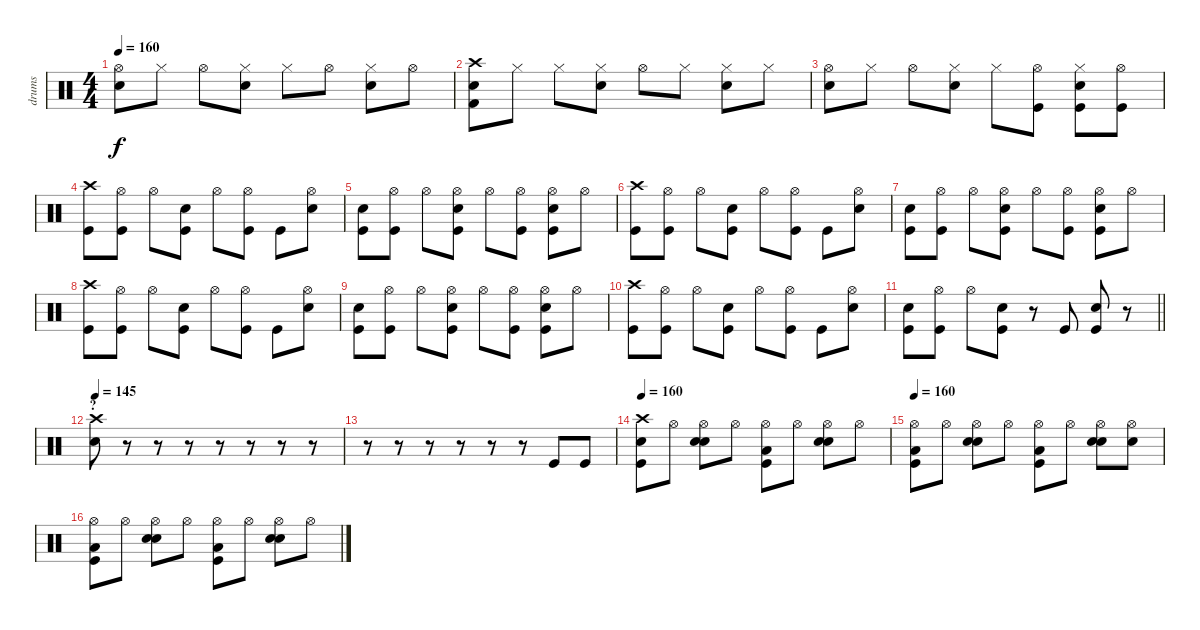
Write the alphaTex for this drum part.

\track ("drums" "drums") {instrument percussion}
\staff {score}
\articulation defaults
\ts (4 4)
\tempo 160
\clef neutral
\ks c
("Hi-Hat (open)" "Snare (hit) 2").8{dy f} "Hi-Hat (closed)".8 "Hi-Hat (open)".8 ("Hi-Hat (closed)" "Snare (hit) 2").8 "Hi-Hat (closed)".8 "Hi-Hat (open)".8 ("Hi-Hat (closed)" "Snare (hit) 2").8 "Hi-Hat (open)".8 |
("Crash high (hit)" "Snare (hit) 2" "Kick (hit) 2").8 "Hi-Hat (closed)".8 "Hi-Hat (closed)".8 ("Hi-Hat (closed)" "Snare (hit) 2").8 "Hi-Hat (open)".8 "Hi-Hat (closed)".8 ("Hi-Hat (closed)" "Snare (hit) 2").8 "Hi-Hat (closed)".8 |
("Hi-Hat (open)" "Snare (hit) 2").8 "Hi-Hat (closed)".8 "Hi-Hat (open)".8 ("Hi-Hat (closed)" "Snare (hit) 2").8 "Hi-Hat (closed)".8 ("Hi-Hat (open)" "Kick (hit)").8 ("Hi-Hat (closed)" "Snare (hit) 2" "Kick (hit)").8 ("Hi-Hat (open)" "Kick (hit)").8 |
("Crash high (hit)" "Kick (hit)").8 ("Hi-Hat (open)" "Kick (hit)").8 "Hi-Hat (open)".8 ("Snare (hit) 2" "Kick (hit)").8 "Hi-Hat (open)".8 ("Hi-Hat (open)" "Kick (hit)").8 "Kick (hit)".8 ("Hi-Hat (open)" "Snare (hit) 2").8 |
("Snare (hit) 2" "Kick (hit)").8 ("Hi-Hat (open)" "Kick (hit)").8 "Hi-Hat (open)".8 ("Hi-Hat (open)" "Snare (hit) 2" "Kick (hit)").8 "Hi-Hat (open)".8 ("Hi-Hat (open)" "Kick (hit)").8 ("Hi-Hat (open)" "Snare (hit) 2" "Kick (hit)").8 "Hi-Hat (open)".8 |
("Crash high (hit)" "Kick (hit)").8 ("Hi-Hat (open)" "Kick (hit)").8 "Hi-Hat (open)".8 ("Snare (hit) 2" "Kick (hit)").8 "Hi-Hat (open)".8 ("Hi-Hat (open)" "Kick (hit)").8 "Kick (hit)".8 ("Hi-Hat (open)" "Snare (hit) 2").8 |
("Snare (hit) 2" "Kick (hit)").8 ("Hi-Hat (open)" "Kick (hit)").8 "Hi-Hat (open)".8 ("Hi-Hat (open)" "Snare (hit) 2" "Kick (hit)").8 "Hi-Hat (open)".8 ("Hi-Hat (open)" "Kick (hit)").8 ("Hi-Hat (open)" "Snare (hit) 2" "Kick (hit)").8 "Hi-Hat (open)".8 |
("Crash high (hit)" "Kick (hit)").8 ("Hi-Hat (open)" "Kick (hit)").8 "Hi-Hat (open)".8 ("Snare (hit) 2" "Kick (hit)").8 "Hi-Hat (open)".8 ("Hi-Hat (open)" "Kick (hit)").8 "Kick (hit)".8 ("Hi-Hat (open)" "Snare (hit) 2").8 |
("Snare (hit) 2" "Kick (hit)").8 ("Hi-Hat (open)" "Kick (hit)").8 "Hi-Hat (open)".8 ("Hi-Hat (open)" "Snare (hit) 2" "Kick (hit)").8 "Hi-Hat (open)".8 ("Hi-Hat (open)" "Kick (hit)").8 ("Hi-Hat (open)" "Snare (hit) 2" "Kick (hit)").8 "Hi-Hat (open)".8 |
("Crash high (hit)" "Kick (hit)").8 ("Hi-Hat (open)" "Kick (hit)").8 "Hi-Hat (open)".8 ("Snare (hit) 2" "Kick (hit)").8 "Hi-Hat (open)".8 ("Hi-Hat (open)" "Kick (hit)").8 "Kick (hit)".8 ("Hi-Hat (open)" "Snare (hit) 2").8 |
\barLineRight lightlight
("Snare (hit) 2" "Kick (hit)").8 ("Hi-Hat (open)" "Kick (hit)").8 "Hi-Hat (open)".8 ("Snare (hit) 2" "Kick (hit)").8 r.8 "Kick (hit)".8 ("Snare (hit) 2" "Kick (hit)").8 r.8 |
\section ("" "?")
\tempo 145
("Crash high (hit)" "Snare (hit) 2").8 r.8 r.8 r.8 r.8 r.8 r.8 r.8 |
r.8 r.8 r.8 r.8 r.8 r.8 "Kick (hit)".8 "Kick (hit)".8 |
\tempo 160
("Crash high (hit)" "Snare (hit) 2" "Kick (hit)").8 "Hi-Hat (open)".8 ("Hi-Hat (open)" "Electric Snare (hit)" "Snare (hit) 2").8 "Hi-Hat (open)".8 ("Hi-Hat (open)" "Low Floor Tom (hit)" "Kick (hit)").8 "Hi-Hat (open)".8 ("Hi-Hat (open)" "Electric Snare (hit)" "Snare (hit) 2").8 "Hi-Hat (open)".8 |
\tempo 160
("Hi-Hat (open)" "Low Floor Tom (hit)" "Kick (hit)").8 "Hi-Hat (open)".8 ("Hi-Hat (open)" "Electric Snare (hit)" "Snare (hit) 2").8 "Hi-Hat (open)".8 ("Hi-Hat (open)" "Low Floor Tom (hit)" "Kick (hit)").8 "Hi-Hat (open)".8 ("Hi-Hat (open)" "Electric Snare (hit)" "Snare (hit) 2").8 ("Hi-Hat (open)" "Electric Snare (hit)").8 |
("Hi-Hat (open)" "Low Floor Tom (hit)" "Kick (hit)").8 "Hi-Hat (open)".8 ("Hi-Hat (open)" "Electric Snare (hit)" "Snare (hit) 2").8 "Hi-Hat (open)".8 ("Hi-Hat (open)" "Low Floor Tom (hit)" "Kick (hit)").8 "Hi-Hat (open)".8 ("Hi-Hat (open)" "Electric Snare (hit)" "Snare (hit) 2").8 "Hi-Hat (open)".8
